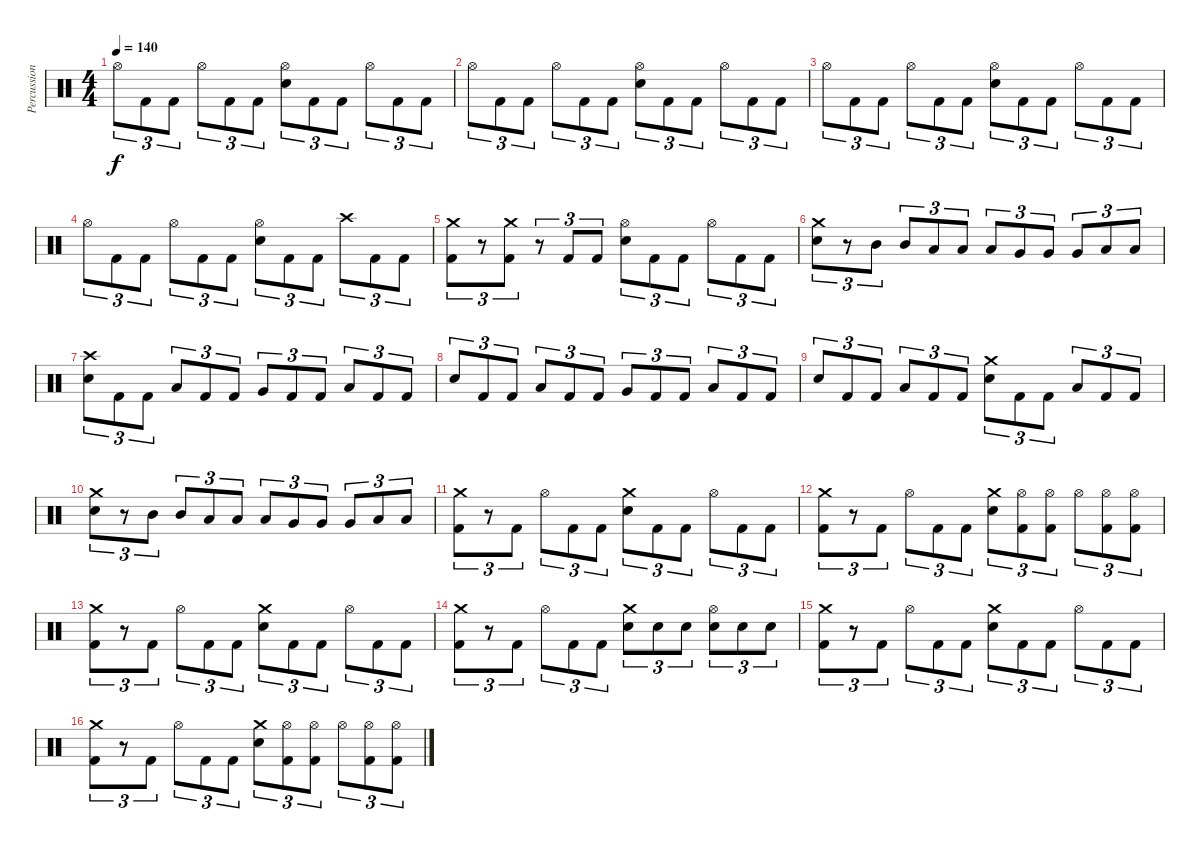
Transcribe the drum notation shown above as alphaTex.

\track ("Percussion" "Percussion") {instrument percussion}
\staff {score}
\articulation defaults
\ts (4 4)
\tempo 140
\clef neutral
\ks c "Hi-Hat (open)".8{tu (3 2) dy f} "Kick (hit) 2".8{tu (3 2)} "Kick (hit) 2".8{tu (3 2)} "Hi-Hat (open)".8{tu (3 2)} "Kick (hit) 2".8{tu (3 2)} "Kick (hit) 2".8{tu (3 2)}
("Hi-Hat (open)" "Electric Snare (hit)").8{tu (3 2)} "Kick (hit) 2".8{tu (3 2)} "Kick (hit) 2".8{tu (3 2)} "Hi-Hat (open)".8{tu (3 2)} "Kick (hit) 2".8{tu (3 2)} "Kick (hit) 2".8{tu (3 2)} |
"Hi-Hat (open)".8{tu (3 2)} "Kick (hit) 2".8{tu (3 2)} "Kick (hit) 2".8{tu (3 2)} "Hi-Hat (open)".8{tu (3 2)} "Kick (hit) 2".8{tu (3 2)} "Kick (hit) 2".8{tu (3 2)} ("Hi-Hat (open)" "Electric Snare (hit)").8{tu (3 2)} "Kick (hit) 2".8{tu (3 2)} "Kick (hit) 2".8{tu (3 2)} "Hi-Hat (open)".8{tu (3 2)} "Kick (hit) 2".8{tu (3 2)} "Kick (hit) 2".8{tu (3 2)} |
"Hi-Hat (open)".8{tu (3 2)} "Kick (hit) 2".8{tu (3 2)} "Kick (hit) 2".8{tu (3 2)} "Hi-Hat (open)".8{tu (3 2)} "Kick (hit) 2".8{tu (3 2)} "Kick (hit) 2".8{tu (3 2)} ("Hi-Hat (open)" "Electric Snare (hit)").8{tu (3 2)} "Kick (hit) 2".8{tu (3 2)} "Kick (hit) 2".8{tu (3 2)} "Hi-Hat (open)".8{tu (3 2)} "Kick (hit) 2".8{tu (3 2)} "Kick (hit) 2".8{tu (3 2)} |
"Hi-Hat (open)".8{tu (3 2)} "Kick (hit) 2".8{tu (3 2)} "Kick (hit) 2".8{tu (3 2)} "Hi-Hat (open)".8{tu (3 2)} "Kick (hit) 2".8{tu (3 2)} "Kick (hit) 2".8{tu (3 2)} ("Hi-Hat (open)" "Electric Snare (hit)").8{tu (3 2)} "Kick (hit) 2".8{tu (3 2)} "Kick (hit) 2".8{tu (3 2)} "Crash high (hit)".8{tu (3 2)} "Kick (hit) 2".8{tu (3 2)} "Kick (hit) 2".8{tu (3 2)} |
("Crash medium (hit)" "Kick (hit) 2").8{tu (3 2)} r.8{tu (3 2)} ("Crash medium (hit)" "Kick (hit) 2").8{tu (3 2)} r.8{tu (3 2)} "Kick (hit) 2".8{tu (3 2)} "Kick (hit) 2".8{tu (3 2)} ("Hi-Hat (open)" "Electric Snare (hit)").8{tu (3 2)} "Kick (hit) 2".8{tu (3 2)} "Kick (hit) 2".8{tu (3 2)} "Hi-Hat (open)".8{tu (3 2)} "Kick (hit) 2".8{tu (3 2)} "Kick (hit) 2".8{tu (3 2)} |
("Crash medium (hit)" "Electric Snare (hit)").8{tu (3 2)} r.8{tu (3 2)} "Mid Tom (hit)".8{tu (3 2)} "Mid Tom (hit)".8{tu (3 2)} "Low Tom (hit)".8{tu (3 2)} "Low Tom (hit)".8{tu (3 2)} "Low Tom (hit)".8{tu (3 2)} "Very Low Tom (hit)".8{tu (3 2)} "Very Low Tom (hit)".8{tu (3 2)} "Very Low Tom (hit)".8{tu (3 2)} "Low Floor Tom (hit)".8{tu (3 2)} "Low Floor Tom (hit)".8{tu (3 2)} |
("Crash high (hit)" "Electric Snare (hit)").8{tu (3 2)} "Kick (hit) 2".8{tu (3 2)} "Kick (hit) 2".8{tu (3 2)} "Low Tom (hit)".8{tu (3 2)} "Kick (hit) 2".8{tu (3 2)} "Kick (hit) 2".8{tu (3 2)} "Very Low Tom (hit)".8{tu (3 2)} "Kick (hit) 2".8{tu (3 2)} "Kick (hit) 2".8{tu (3 2)} "Low Floor Tom (hit)".8{tu (3 2)} "Kick (hit) 2".8{tu (3 2)} "Kick (hit) 2".8{tu (3 2)} |
"Electric Snare (hit)".8{tu (3 2)} "Kick (hit) 2".8{tu (3 2)} "Kick (hit) 2".8{tu (3 2)} "Low Tom (hit)".8{tu (3 2)} "Kick (hit) 2".8{tu (3 2)} "Kick (hit) 2".8{tu (3 2)} "Very Low Tom (hit)".8{tu (3 2)} "Kick (hit) 2".8{tu (3 2)} "Kick (hit) 2".8{tu (3 2)} "Low Floor Tom (hit)".8{tu (3 2)} "Kick (hit) 2".8{tu (3 2)} "Kick (hit) 2".8{tu (3 2)} |
"Electric Snare (hit)".8{tu (3 2)} "Kick (hit) 2".8{tu (3 2)} "Kick (hit) 2".8{tu (3 2)} "Low Tom (hit)".8{tu (3 2)} "Kick (hit) 2".8{tu (3 2)} "Kick (hit) 2".8{tu (3 2)} ("Crash medium (hit)" "Electric Snare (hit)").8{tu (3 2)} "Kick (hit) 2".8{tu (3 2)} "Kick (hit) 2".8{tu (3 2)} "Low Tom (hit)".8{tu (3 2)} "Kick (hit) 2".8{tu (3 2)} "Kick (hit) 2".8{tu (3 2)} |
("Crash medium (hit)" "Electric Snare (hit)").8{tu (3 2)} r.8{tu (3 2)} "Mid Tom (hit)".8{tu (3 2)} "Mid Tom (hit)".8{tu (3 2)} "Low Tom (hit)".8{tu (3 2)} "Low Tom (hit)".8{tu (3 2)} "Low Tom (hit)".8{tu (3 2)} "Very Low Tom (hit)".8{tu (3 2)} "Very Low Tom (hit)".8{tu (3 2)} "Very Low Tom (hit)".8{tu (3 2)} "Low Floor Tom (hit)".8{tu (3 2)} "Low Floor Tom (hit)".8{tu (3 2)} |
("Crash medium (hit)" "Kick (hit) 2").8{tu (3 2)} r.8{tu (3 2)} "Kick (hit) 2".8{tu (3 2)} "Hi-Hat (open)".8{tu (3 2)} "Kick (hit) 2".8{tu (3 2)} "Kick (hit) 2".8{tu (3 2)} ("Crash medium (hit)" "Electric Snare (hit)").8{tu (3 2)} "Kick (hit) 2".8{tu (3 2)} "Kick (hit) 2".8{tu (3 2)} "Hi-Hat (open)".8{tu (3 2)} "Kick (hit) 2".8{tu (3 2)} "Kick (hit) 2".8{tu (3 2)} |
("Crash medium (hit)" "Kick (hit) 2").8{tu (3 2)} r.8{tu (3 2)} "Kick (hit) 2".8{tu (3 2)} "Hi-Hat (open)".8{tu (3 2)} "Kick (hit) 2".8{tu (3 2)} "Kick (hit) 2".8{tu (3 2)} ("Crash medium (hit)" "Electric Snare (hit)").8{tu (3 2)} ("Hi-Hat (open)" "Kick (hit) 2").8{tu (3 2)} ("Hi-Hat (open)" "Kick (hit) 2").8{tu (3 2)} "Hi-Hat (open)".8{tu (3 2)} ("Hi-Hat (open)" "Kick (hit) 2").8{tu (3 2)} ("Hi-Hat (open)" "Kick (hit) 2").8{tu (3 2)} |
("Crash medium (hit)" "Kick (hit) 2").8{tu (3 2)} r.8{tu (3 2)} "Kick (hit) 2".8{tu (3 2)} "Hi-Hat (open)".8{tu (3 2)} "Kick (hit) 2".8{tu (3 2)} "Kick (hit) 2".8{tu (3 2)} ("Crash medium (hit)" "Electric Snare (hit)").8{tu (3 2)} "Kick (hit) 2".8{tu (3 2)} "Kick (hit) 2".8{tu (3 2)} "Hi-Hat (open)".8{tu (3 2)} "Kick (hit) 2".8{tu (3 2)} "Kick (hit) 2".8{tu (3 2)} |
("Crash medium (hit)" "Kick (hit) 2").8{tu (3 2)} r.8{tu (3 2)} "Kick (hit) 2".8{tu (3 2)} "Hi-Hat (open)".8{tu (3 2)} "Kick (hit) 2".8{tu (3 2)} "Kick (hit) 2".8{tu (3 2)} ("Crash medium (hit)" "Electric Snare (hit)").8{tu (3 2)} "Electric Snare (hit)".8{tu (3 2)} "Electric Snare (hit)".8{tu (3 2)} ("Hi-Hat (open)" "Electric Snare (hit)").8{tu (3 2)} "Electric Snare (hit)".8{tu (3 2)} "Electric Snare (hit)".8{tu (3 2)} |
("Crash medium (hit)" "Kick (hit) 2").8{tu (3 2)} r.8{tu (3 2)} "Kick (hit) 2".8{tu (3 2)} "Hi-Hat (open)".8{tu (3 2)} "Kick (hit) 2".8{tu (3 2)} "Kick (hit) 2".8{tu (3 2)} ("Crash medium (hit)" "Electric Snare (hit)").8{tu (3 2)} "Kick (hit) 2".8{tu (3 2)} "Kick (hit) 2".8{tu (3 2)} "Hi-Hat (open)".8{tu (3 2)} "Kick (hit) 2".8{tu (3 2)} "Kick (hit) 2".8{tu (3 2)} |
("Crash medium (hit)" "Kick (hit) 2").8{tu (3 2)} r.8{tu (3 2)} "Kick (hit) 2".8{tu (3 2)} "Hi-Hat (open)".8{tu (3 2)} "Kick (hit) 2".8{tu (3 2)} "Kick (hit) 2".8{tu (3 2)} ("Crash medium (hit)" "Electric Snare (hit)").8{tu (3 2)} ("Hi-Hat (open)" "Kick (hit) 2").8{tu (3 2)} ("Hi-Hat (open)" "Kick (hit) 2").8{tu (3 2)} "Hi-Hat (open)".8{tu (3 2)} ("Hi-Hat (open)" "Kick (hit) 2").8{tu (3 2)} ("Hi-Hat (open)" "Kick (hit) 2").8{tu (3 2)}
